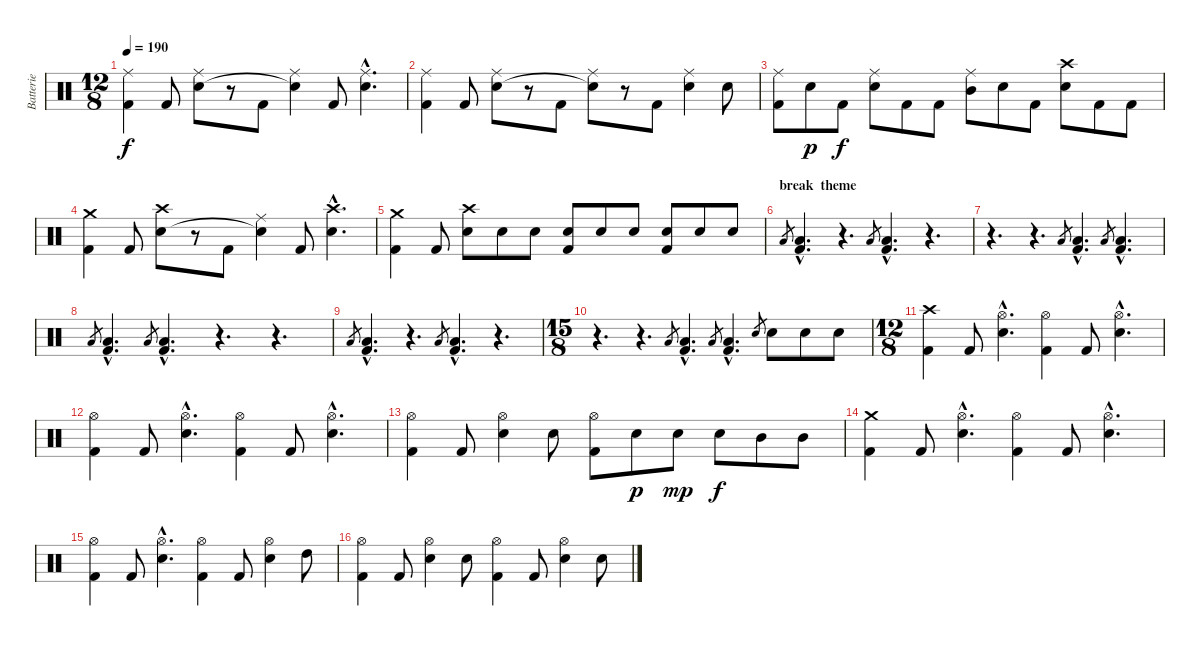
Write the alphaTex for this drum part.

\track ("Batterie" "Batterie") {instrument percussion}
\staff {score}
\articulation defaults
\ts (12 8)
\tempo 190
\clef neutral
\ks c
("Ride (middle)" "Kick (hit) 2").4{dy f} "Kick (hit) 2".8 ("Ride (middle)" "Snare (hit) 2").8 r.8 "Kick (hit) 2".8 ("Ride (middle)" "Snare (hit)"{t}).4 "Kick (hit) 2".8 ("Ride (middle)"{hac} "Snare (hit) 2"{hac}).4{d} |
("Ride (middle)" "Kick (hit) 2").4 "Kick (hit) 2".8 ("Ride (middle)" "Snare (hit) 2").8 r.8 "Kick (hit) 2".8 ("Ride (middle)" "Snare (hit)"{t}).8 r.8 "Kick (hit) 2".8 ("Ride (middle)" "Snare (hit) 2").4 "Snare (hit) 2".8 |
("Ride (middle)" "Kick (hit) 2").8 "Snare (hit) 2".8{dy p} "Kick (hit) 2".8{dy f} ("Ride (middle)" "Snare (hit) 2").8 "Kick (hit) 2".8 "Kick (hit) 2".8 ("Ride (middle)" "Mid Tom (hit)").8 "Snare (hit) 2".8 "Kick (hit) 2".8 ("Crash high (hit)" "Snare (hit) 2").8 "Kick (hit) 2".8 "Kick (hit) 2".8 |
("Crash medium (hit)" "Kick (hit) 2").4 "Kick (hit) 2".8 ("Crash high (hit)" "Snare (hit) 2").8 r.8 "Kick (hit) 2".8 ("Ride (middle)" "Snare (hit)"{t}).4 "Kick (hit) 2".8 ("Crash high (hit)"{hac} "Snare (hit) 2"{hac}).4{d} |
("Crash medium (hit)" "Kick (hit) 2").4 "Kick (hit) 2".8 ("Crash high (hit)" "Snare (hit) 2").8 "Snare (hit) 2".8 "Snare (hit) 2".8 ("Snare (hit) 2" "Kick (hit) 2").8 "Snare (hit) 2".8 "Snare (hit) 2".8 ("Snare (hit) 2" "Kick (hit) 2").8 "Snare (hit) 2".8 "Snare (hit) 2".8 |
\section ("" "break  theme")
"Low Tom (hit)".8{gr} ("Low Tom (hit)"{hac} "Kick (hit) 2"{hac}).4{d} r.4{d} "Low Tom (hit)".8{gr} ("Low Tom (hit)"{hac} "Kick (hit) 2"{hac}).4{d} r.4{d} |
r.4{d} r.4{d} "Low Tom (hit)".8{gr} ("Low Tom (hit)"{hac} "Kick (hit) 2"{hac}).4{d} "Low Tom (hit)".8{gr} ("Low Tom (hit)"{hac} "Kick (hit) 2"{hac}).4{d} |
"Low Tom (hit)".8{gr} ("Low Tom (hit)"{hac} "Kick (hit) 2"{hac}).4{d} "Low Tom (hit)".8{gr} ("Low Tom (hit)"{hac} "Kick (hit) 2"{hac}).4{d} r.4{d} r.4{d} |
"Low Tom (hit)".8{gr} ("Low Tom (hit)"{hac} "Kick (hit) 2"{hac}).4{d} r.4{d} "Low Tom (hit)".8{gr} ("Low Tom (hit)"{hac} "Kick (hit) 2"{hac}).4{d} r.4{d} |
\ts (15 8)
r.4{d} r.4{d} "Low Tom (hit)".8{gr} ("Low Tom (hit)"{hac} "Kick (hit) 2"{hac}).4{d} "Low Tom (hit)".8{gr} ("Low Tom (hit)"{hac} "Kick (hit) 2"{hac}).4{d} "Snare (hit) 2".8{gr} "Snare (hit) 2".8 "Snare (hit) 2".8 "Snare (hit) 2".8 |
\ts (12 8)
("Crash high (hit)" "Kick (hit) 2").4 "Kick (hit) 2".8 ("Hi-Hat (open)"{hac} "Snare (hit) 2"{hac}).4{d} ("Hi-Hat (open)" "Kick (hit) 2").4 "Kick (hit) 2".8 ("Hi-Hat (open)"{hac} "Snare (hit) 2"{hac}).4{d} |
("Hi-Hat (open)" "Kick (hit) 2").4 "Kick (hit) 2".8 ("Hi-Hat (open)"{hac} "Snare (hit) 2"{hac}).4{d} ("Hi-Hat (open)" "Kick (hit) 2").4 "Kick (hit) 2".8 ("Hi-Hat (open)"{hac} "Snare (hit) 2"{hac}).4{d} |
("Hi-Hat (open)" "Kick (hit) 2").4 "Kick (hit) 2".8 ("Hi-Hat (open)" "Snare (hit) 2").4 "Snare (hit) 2".8 ("Hi-Hat (open)" "Kick (hit) 2").8 "Snare (hit) 2".8{dy p} "Snare (hit) 2".8{dy mp} "Snare (hit) 2".8{dy f} "Mid Tom (hit)".8 "Mid Tom (hit)".8 |
("Crash medium (hit)" "Kick (hit) 2").4 "Kick (hit) 2".8 ("Hi-Hat (open)"{hac} "Snare (hit) 2"{hac}).4{d} ("Hi-Hat (open)" "Kick (hit) 2").4 "Kick (hit) 2".8 ("Hi-Hat (open)"{hac} "Snare (hit) 2"{hac}).4{d} |
("Hi-Hat (open)" "Kick (hit) 2").4 "Kick (hit) 2".8 ("Hi-Hat (open)"{hac} "Snare (hit) 2"{hac}).4{d} ("Hi-Hat (open)" "Kick (hit) 2").4 "Kick (hit) 2".8 ("Hi-Hat (open)" "Snare (hit) 2").4 "High Tom (hit)".8 |
("Hi-Hat (open)" "Kick (hit) 2").4 "Kick (hit) 2".8 ("Hi-Hat (open)" "Snare (hit) 2").4 "Snare (hit) 2".8 ("Hi-Hat (open)" "Kick (hit) 2").4 "Kick (hit) 2".8 ("Hi-Hat (open)" "Snare (hit) 2").4 "Snare (hit) 2".8
